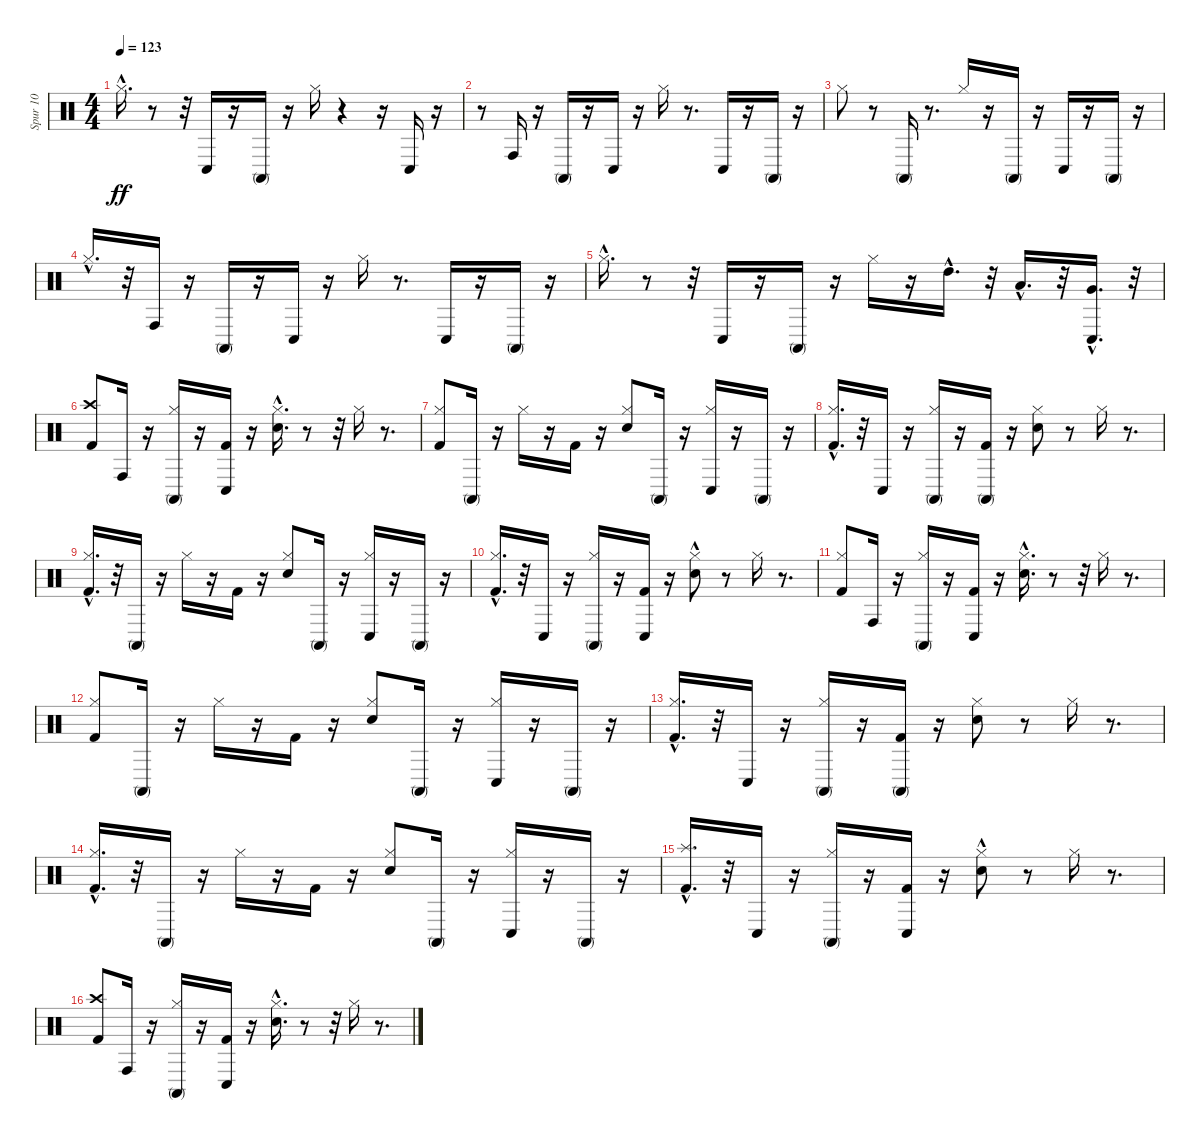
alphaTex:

\track ("Spur 10" "Spur 10") {instrument percussion}
\staff {score}
\articulation defaults
\ts (4 4)
\tempo 123
\clef neutral
\ks c "Hi-Hat (closed)"{hac}.16{d dy ff}
r.8 r.32 "Conga low (hit)".16 r.16 "Conga high (mute)".16 r.16 "Hi-Hat (closed)".16 r.4 r.16 "Conga low (hit)".16 r.16 |
r.8 "Conga high (hit)".16 r.16 "Conga high (mute)".16 r.16 "Conga low (hit)".16 r.16 "Hi-Hat (closed)".16 r.8{d} "Conga low (hit)".16 r.16 "Conga high (mute)".16 r.16 |
"Hi-Hat (closed)".8 r.8 "Conga high (mute)".16 r.8{d} "Hi-Hat (closed)".16 r.16 "Conga high (mute)".16 r.16 "Conga low (hit)".16 r.16 "Conga high (mute)".16 r.16 |
"Hi-Hat (closed)"{hac}.16{d} r.32 "Conga high (hit)".16 r.16 "Conga high (mute)".16 r.16 "Conga low (hit)".16 r.16 "Hi-Hat (closed)".16 r.8{d} "Conga low (hit)".16 r.16 "Conga high (mute)".16 r.16 |
"Hi-Hat (closed)"{hac}.16{d} r.8 r.32 "Conga low (hit)".16 r.16 "Conga high (mute)".16 r.16 "Hi-Hat (closed)".16 r.16 "High Tom (hit)"{hac}.16{d} r.32 "Low Tom (hit)"{hac}.16{d} r.32 ("Very Low Tom (hit)"{hac} "Conga low (hit)").16{d} r.32 |
("Kick (hit) 2" "Crash high (hit)").8 "Conga high (hit)".16 r.16 ("Conga high (mute)" "Hi-Hat (closed)").16 r.16 ("Kick (hit) 2" "Conga low (hit)").16 r.16 ("Snare (hit) 2"{hac} "Hi-Hat (closed)").16{d} r.8 r.32 "Hi-Hat (closed)".16 r.8{d} |
("Kick (hit) 2" "Hi-Hat (closed)").8 "Conga high (mute)".16 r.16 "Hi-Hat (closed)".16 r.16 "Kick (hit) 2".16 r.16 ("Snare (hit) 2" "Hi-Hat (closed)").8 "Conga high (mute)".16 r.16 ("Conga low (hit)" "Hi-Hat (closed)").16 r.16 "Conga high (mute)".16 r.16 |
("Kick (hit) 2"{hac} "Hi-Hat (closed)").16{d} r.32 "Conga low (hit)".16 r.16 ("Conga high (mute)" "Hi-Hat (closed)").16 r.16 ("Kick (hit) 2" "Conga high (mute)").16 r.16 ("Snare (hit) 2" "Hi-Hat (closed)").8 r.8 "Hi-Hat (closed)".16 r.8{d} |
("Kick (hit) 2"{hac} "Hi-Hat (closed)").16{d} r.32 "Conga high (mute)".16 r.16 "Hi-Hat (closed)".16 r.16 "Kick (hit) 2".16 r.16 ("Snare (hit) 2" "Hi-Hat (closed)").8 "Conga high (mute)".16 r.16 ("Conga low (hit)" "Hi-Hat (closed)").16 r.16 "Conga high (mute)".16 r.16 |
("Kick (hit) 2"{hac} "Hi-Hat (closed)").16{d} r.32 "Conga low (hit)".16 r.16 ("Hi-Hat (closed)" "Conga high (mute)").16 r.16 ("Kick (hit) 2" "Conga low (hit)").16 r.16 ("Snare (hit) 2" "Hi-Hat (closed)"{hac}).8 r.8 "Hi-Hat (closed)".16 r.8{d} |
("Kick (hit) 2" "Hi-Hat (closed)").8 "Conga high (hit)".16 r.16 ("Conga high (mute)" "Hi-Hat (closed)").16 r.16 ("Kick (hit) 2" "Conga low (hit)").16 r.16 ("Snare (hit) 2"{hac} "Hi-Hat (closed)").16{d} r.8 r.32 "Hi-Hat (closed)".16 r.8{d} |
("Kick (hit) 2" "Hi-Hat (closed)").8 "Conga high (mute)".16 r.16 "Hi-Hat (closed)".16 r.16 "Kick (hit) 2".16 r.16 ("Snare (hit) 2" "Hi-Hat (closed)").8 "Conga high (mute)".16 r.16 ("Conga low (hit)" "Hi-Hat (closed)").16 r.16 "Conga high (mute)".16 r.16 |
("Kick (hit) 2"{hac} "Hi-Hat (closed)").16{d} r.32 "Conga low (hit)".16 r.16 ("Conga high (mute)" "Hi-Hat (closed)").16 r.16 ("Kick (hit) 2" "Conga high (mute)").16 r.16 ("Snare (hit) 2" "Hi-Hat (closed)").8 r.8 "Hi-Hat (closed)".16 r.8{d} |
("Kick (hit) 2"{hac} "Hi-Hat (closed)").16{d} r.32 "Conga high (mute)".16 r.16 "Hi-Hat (closed)".16 r.16 "Kick (hit) 2".16 r.16 ("Snare (hit) 2" "Hi-Hat (closed)").8 "Conga high (mute)".16 r.16 ("Conga low (hit)" "Hi-Hat (closed)").16 r.16 "Conga high (mute)".16 r.16 |
("Kick (hit) 2"{hac} "Splash (hit)").16{d} r.32 "Conga low (hit)".16 r.16 ("Hi-Hat (closed)" "Conga high (mute)").16 r.16 ("Kick (hit) 2" "Conga low (hit)").16 r.16 ("Snare (hit) 2" "Hi-Hat (closed)"{hac}).8 r.8 "Hi-Hat (closed)".16 r.8{d} |
("Kick (hit) 2" "Crash high (hit)").8 "Conga high (hit)".16 r.16 ("Conga high (mute)" "Hi-Hat (closed)").16 r.16 ("Kick (hit) 2" "Conga low (hit)").16 r.16 ("Snare (hit) 2"{hac} "Hi-Hat (closed)").16{d} r.8 r.32 "Hi-Hat (closed)".16 r.8{d}
